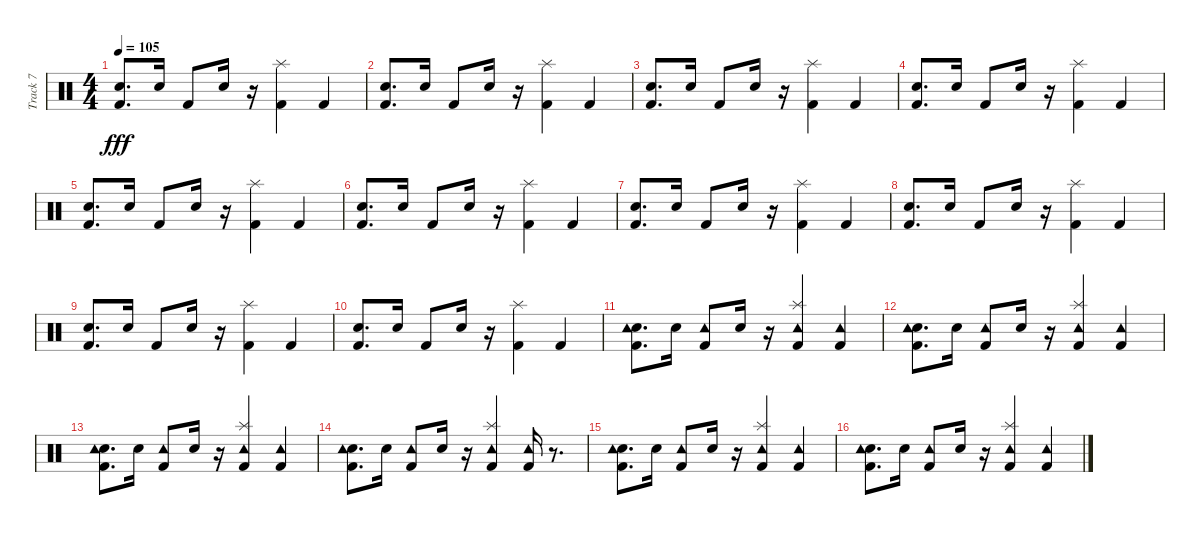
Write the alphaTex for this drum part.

\track ("Track 7" "Track 7") {instrument percussion}
\staff {score}
\articulation defaults
\ts (4 4)
\tempo 105
\clef neutral
\ks c
("Snare (hit) 2" "Kick (hit) 2").8{d dy fff} "Snare (hit) 2".16 "Kick (hit) 2".8 "Snare (hit) 2".16 r.16 ("Kick (hit) 2" "Splash (hit)").4 "Kick (hit) 2".4 |
("Kick (hit) 2" "Snare (hit) 2").8{d} "Snare (hit) 2".16 "Kick (hit) 2".8 "Snare (hit) 2".16 r.16 ("Kick (hit) 2" "Splash (hit)").4 "Kick (hit) 2".4 |
("Kick (hit) 2" "Snare (hit) 2").8{d} "Snare (hit) 2".16 "Kick (hit) 2".8 "Snare (hit) 2".16 r.16 ("Kick (hit) 2" "Splash (hit)").4 "Kick (hit) 2".4 |
("Kick (hit) 2" "Snare (hit) 2").8{d} "Snare (hit) 2".16 "Kick (hit) 2".8 "Snare (hit) 2".16 r.16 ("Kick (hit) 2" "Splash (hit)").4 "Kick (hit) 2".4 |
("Snare (hit) 2" "Kick (hit) 2").8{d} "Snare (hit) 2".16 "Kick (hit) 2".8 "Snare (hit) 2".16 r.16 ("Splash (hit)" "Kick (hit) 2").4 "Kick (hit) 2".4 |
("Snare (hit) 2" "Kick (hit) 2").8{d} "Snare (hit) 2".16 "Kick (hit) 2".8 "Snare (hit) 2".16 r.16 ("Splash (hit)" "Kick (hit) 2").4 "Kick (hit) 2".4 |
("Kick (hit) 2" "Snare (hit) 2").8{d} "Snare (hit) 2".16 "Kick (hit) 2".8 "Snare (hit) 2".16 r.16 ("Kick (hit) 2" "Splash (hit)").4 "Kick (hit) 2".4 |
("Kick (hit) 2" "Snare (hit) 2").8{d} "Snare (hit) 2".16 "Kick (hit) 2".8 "Snare (hit) 2".16 r.16 ("Kick (hit) 2" "Splash (hit)").4 "Kick (hit) 2".4 |
("Kick (hit) 2" "Snare (hit) 2").8{d} "Snare (hit) 2".16 "Kick (hit) 2".8 "Snare (hit) 2".16 r.16 ("Kick (hit) 2" "Splash (hit)").4 "Kick (hit) 2".4 |
("Kick (hit) 2" "Snare (hit) 2").8{d} "Snare (hit) 2".16 "Kick (hit) 2".8 "Snare (hit) 2".16 r.16 ("Kick (hit) 2" "Splash (hit)").4 "Kick (hit) 2".4 |
("Snare (hit) 2" "Kick (hit) 2" "Tambourine (hit)").8{d} "Snare (hit) 2".16 ("Kick (hit) 2" "Tambourine (hit)").8 "Snare (hit) 2".16 r.16 ("Kick (hit) 2" "Splash (hit)" "Tambourine (hit)").4 ("Kick (hit) 2" "Tambourine (hit)").4 |
("Kick (hit) 2" "Snare (hit) 2" "Tambourine (hit)").8{d} "Snare (hit) 2".16 ("Kick (hit) 2" "Tambourine (hit)").8 "Snare (hit) 2".16 r.16 ("Kick (hit) 2" "Splash (hit)" "Tambourine (hit)").4 ("Kick (hit) 2" "Tambourine (hit)").4 |
("Kick (hit) 2" "Snare (hit) 2" "Tambourine (hit)").8{d} "Snare (hit) 2".16 ("Kick (hit) 2" "Tambourine (hit)").8 "Snare (hit) 2".16 r.16 ("Splash (hit)" "Kick (hit) 2" "Tambourine (hit)").4 ("Kick (hit) 2" "Tambourine (hit)").4 |
("Kick (hit) 2" "Snare (hit) 2" "Tambourine (hit)").8{d} "Snare (hit) 2".16 ("Kick (hit) 2" "Tambourine (hit)").8 "Snare (hit) 2".16 r.16 ("Kick (hit) 2" "Splash (hit)" "Tambourine (hit)").4 ("Kick (hit) 2" "Tambourine (hit)").16 r.8{d} |
("Kick (hit) 2" "Snare (hit) 2" "Tambourine (hit)").8{d} "Snare (hit) 2".16 ("Kick (hit) 2" "Tambourine (hit)").8 "Snare (hit) 2".16 r.16 ("Kick (hit) 2" "Splash (hit)" "Tambourine (hit)").4 ("Kick (hit) 2" "Tambourine (hit)").4 |
("Kick (hit) 2" "Snare (hit) 2" "Tambourine (hit)").8{d} "Snare (hit) 2".16 ("Kick (hit) 2" "Tambourine (hit)").8 "Snare (hit) 2".16 r.16 ("Kick (hit) 2" "Splash (hit)" "Tambourine (hit)").4 ("Kick (hit) 2" "Tambourine (hit)").4
